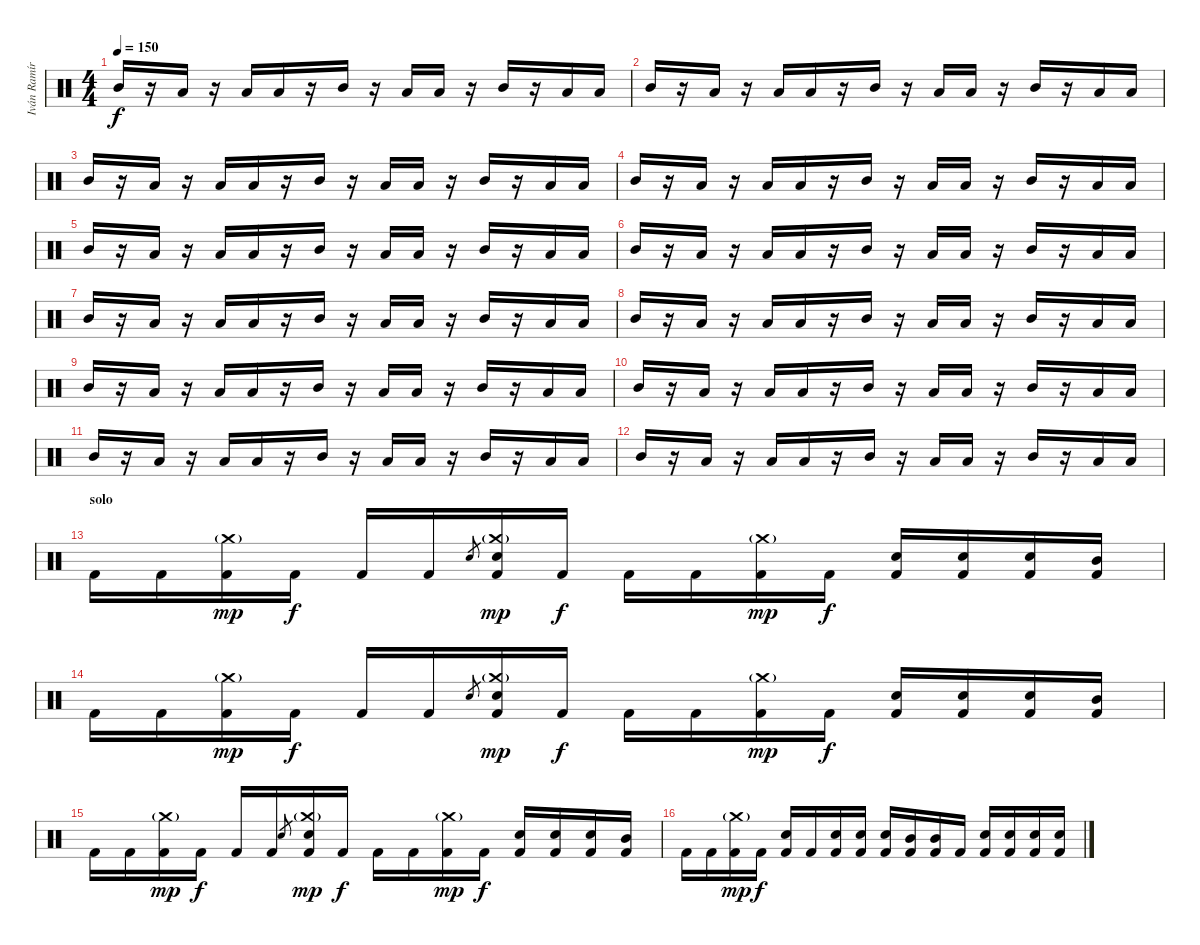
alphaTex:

\track ("Iván Ramírez" "Iván Ramír") {instrument percussion}
\staff {score}
\articulation defaults
\ts (4 4)
\tempo 150
\clef neutral
\ks c "Mid Tom (hit)".16{dy f}
r.16 "Low Tom (hit)".16 r.16 "Low Tom (hit)".16 "Low Tom (hit)".16 r.16 "Mid Tom (hit)".16 r.16 "Low Tom (hit)".16 "Low Tom (hit)".16 r.16 "Mid Tom (hit)".16 r.16 "Low Tom (hit)".16 "Low Tom (hit)".16 |
"Mid Tom (hit)".16 r.16 "Low Tom (hit)".16 r.16 "Low Tom (hit)".16 "Low Tom (hit)".16 r.16 "Mid Tom (hit)".16 r.16 "Low Tom (hit)".16 "Low Tom (hit)".16 r.16 "Mid Tom (hit)".16 r.16 "Low Tom (hit)".16 "Low Tom (hit)".16 |
"Mid Tom (hit)".16 r.16 "Low Tom (hit)".16 r.16 "Low Tom (hit)".16 "Low Tom (hit)".16 r.16 "Mid Tom (hit)".16 r.16 "Low Tom (hit)".16 "Low Tom (hit)".16 r.16 "Mid Tom (hit)".16 r.16 "Low Tom (hit)".16 "Low Tom (hit)".16 |
"Mid Tom (hit)".16 r.16 "Low Tom (hit)".16 r.16 "Low Tom (hit)".16 "Low Tom (hit)".16 r.16 "Mid Tom (hit)".16 r.16 "Low Tom (hit)".16 "Low Tom (hit)".16 r.16 "Mid Tom (hit)".16 r.16 "Low Tom (hit)".16 "Low Tom (hit)".16 |
"Mid Tom (hit)".16 r.16 "Low Tom (hit)".16 r.16 "Low Tom (hit)".16 "Low Tom (hit)".16 r.16 "Mid Tom (hit)".16 r.16 "Low Tom (hit)".16 "Low Tom (hit)".16 r.16 "Mid Tom (hit)".16 r.16 "Low Tom (hit)".16 "Low Tom (hit)".16 |
"Mid Tom (hit)".16 r.16 "Low Tom (hit)".16 r.16 "Low Tom (hit)".16 "Low Tom (hit)".16 r.16 "Mid Tom (hit)".16 r.16 "Low Tom (hit)".16 "Low Tom (hit)".16 r.16 "Mid Tom (hit)".16 r.16 "Low Tom (hit)".16 "Low Tom (hit)".16 |
"Mid Tom (hit)".16 r.16 "Low Tom (hit)".16 r.16 "Low Tom (hit)".16 "Low Tom (hit)".16 r.16 "Mid Tom (hit)".16 r.16 "Low Tom (hit)".16 "Low Tom (hit)".16 r.16 "Mid Tom (hit)".16 r.16 "Low Tom (hit)".16 "Low Tom (hit)".16 |
"Mid Tom (hit)".16 r.16 "Low Tom (hit)".16 r.16 "Low Tom (hit)".16 "Low Tom (hit)".16 r.16 "Mid Tom (hit)".16 r.16 "Low Tom (hit)".16 "Low Tom (hit)".16 r.16 "Mid Tom (hit)".16 r.16 "Low Tom (hit)".16 "Low Tom (hit)".16 |
"Mid Tom (hit)".16 r.16 "Low Tom (hit)".16 r.16 "Low Tom (hit)".16 "Low Tom (hit)".16 r.16 "Mid Tom (hit)".16 r.16 "Low Tom (hit)".16 "Low Tom (hit)".16 r.16 "Mid Tom (hit)".16 r.16 "Low Tom (hit)".16 "Low Tom (hit)".16 |
"Mid Tom (hit)".16 r.16 "Low Tom (hit)".16 r.16 "Low Tom (hit)".16 "Low Tom (hit)".16 r.16 "Mid Tom (hit)".16 r.16 "Low Tom (hit)".16 "Low Tom (hit)".16 r.16 "Mid Tom (hit)".16 r.16 "Low Tom (hit)".16 "Low Tom (hit)".16 |
"Mid Tom (hit)".16 r.16 "Low Tom (hit)".16 r.16 "Low Tom (hit)".16 "Low Tom (hit)".16 r.16 "Mid Tom (hit)".16 r.16 "Low Tom (hit)".16 "Low Tom (hit)".16 r.16 "Mid Tom (hit)".16 r.16 "Low Tom (hit)".16 "Low Tom (hit)".16 |
"Mid Tom (hit)".16 r.16 "Low Tom (hit)".16 r.16 "Low Tom (hit)".16 "Low Tom (hit)".16 r.16 "Mid Tom (hit)".16 r.16 "Low Tom (hit)".16 "Low Tom (hit)".16 r.16 "Mid Tom (hit)".16 r.16 "Low Tom (hit)".16 "Low Tom (hit)".16 |
\section ("" "solo")
"Kick (hit) 2".16 "Kick (hit) 2".16 ("Crash medium (hit)"{g} "Kick (hit) 2").16{dy mp} "Kick (hit) 2".16{dy f} "Kick (hit) 2".16 "Kick (hit) 2".16 "Electric Snare (hit)".8{gr} ("Crash medium (hit)"{g} "Electric Snare (hit)" "Kick (hit) 2").16{dy mp} "Kick (hit) 2".16{dy f} "Kick (hit) 2".16 "Kick (hit) 2".16 ("Crash medium (hit)"{g} "Kick (hit) 2").16{dy mp} "Kick (hit) 2".16{dy f} ("Electric Snare (hit)" "Kick (hit) 2").16 ("Electric Snare (hit)" "Kick (hit) 2").16 ("Electric Snare (hit)" "Kick (hit) 2").16 ("Mid Tom (hit)" "Kick (hit) 2").16 |
"Kick (hit) 2".16 "Kick (hit) 2".16 ("Crash medium (hit)"{g} "Kick (hit) 2").16{dy mp} "Kick (hit) 2".16{dy f} "Kick (hit) 2".16 "Kick (hit) 2".16 "Electric Snare (hit)".8{gr} ("Crash medium (hit)"{g} "Electric Snare (hit)" "Kick (hit) 2").16{dy mp} "Kick (hit) 2".16{dy f} "Kick (hit) 2".16 "Kick (hit) 2".16 ("Crash medium (hit)"{g} "Kick (hit) 2").16{dy mp} "Kick (hit) 2".16{dy f} ("Electric Snare (hit)" "Kick (hit) 2").16 ("Electric Snare (hit)" "Kick (hit) 2").16 ("Electric Snare (hit)" "Kick (hit) 2").16 ("Mid Tom (hit)" "Kick (hit) 2").16 |
"Kick (hit) 2".16 "Kick (hit) 2".16 ("Crash medium (hit)"{g} "Kick (hit) 2").16{dy mp} "Kick (hit) 2".16{dy f} "Kick (hit) 2".16 "Kick (hit) 2".16 "Electric Snare (hit)".8{gr} ("Crash medium (hit)"{g} "Electric Snare (hit)" "Kick (hit) 2").16{dy mp} "Kick (hit) 2".16{dy f} "Kick (hit) 2".16 "Kick (hit) 2".16 ("Crash medium (hit)"{g} "Kick (hit) 2").16{dy mp} "Kick (hit) 2".16{dy f} ("Electric Snare (hit)" "Kick (hit) 2").16 ("Electric Snare (hit)" "Kick (hit) 2").16 ("Electric Snare (hit)" "Kick (hit) 2").16 ("Mid Tom (hit)" "Kick (hit) 2").16 |
"Kick (hit) 2".16 "Kick (hit) 2".16 ("Crash medium (hit)"{g} "Kick (hit) 2").16{dy mp} "Kick (hit) 2".16{dy f} ("Electric Snare (hit)" "Kick (hit) 2").16 "Kick (hit) 2".16 ("Electric Snare (hit)" "Kick (hit) 2").16 ("Electric Snare (hit)" "Kick (hit) 2").16 ("Electric Snare (hit)" "Kick (hit) 2").16 ("Mid Tom (hit)" "Kick (hit) 2").16 ("Mid Tom (hit)" "Kick (hit) 2").16 "Kick (hit) 2".16 ("Electric Snare (hit)" "Kick (hit) 2").16 ("Electric Snare (hit)" "Kick (hit) 2").16 ("Electric Snare (hit)" "Kick (hit) 2").16 ("Electric Snare (hit)" "Kick (hit) 2").16
